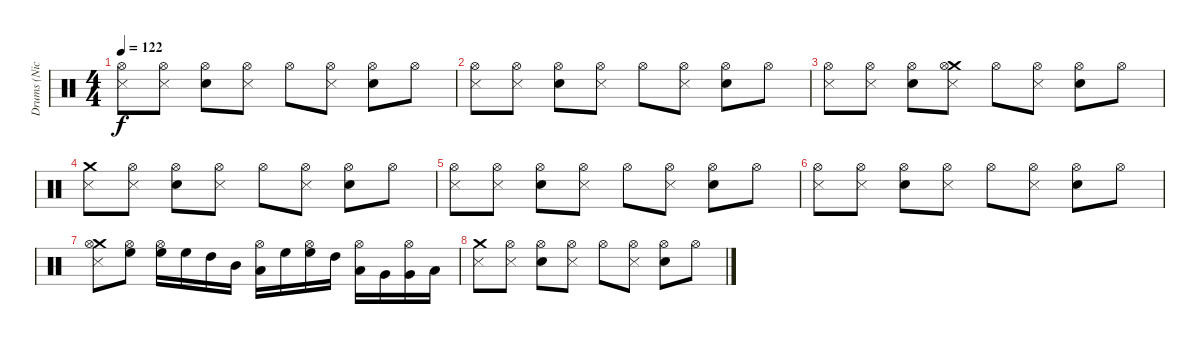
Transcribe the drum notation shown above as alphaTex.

\track ("Drums (Nick Menza)" "Drums (Nic") {instrument percussion}
\staff {score}
\articulation defaults
\ts (4 4)
\tempo 122
\clef neutral
\ks c
("Hi-Hat (open)" "Metronome (hit)").8{dy f volume 14} ("Hi-Hat (open)" "Metronome (hit)").8{volume 14} ("Hi-Hat (open)" "Electric Snare (hit)").8{volume 14} ("Hi-Hat (open)" "Metronome (hit)").8{volume 14} "Hi-Hat (open)".8{volume 13} ("Metronome (hit)" "Hi-Hat (open)").8{volume 13} ("Electric Snare (hit)" "Hi-Hat (open)").8{volume 13} "Hi-Hat (open)".8{volume 13} |
("Hi-Hat (open)" "Metronome (hit)").8{volume 12} ("Hi-Hat (open)" "Metronome (hit)").8{volume 12} ("Hi-Hat (open)" "Electric Snare (hit)").8{volume 12} ("Hi-Hat (open)" "Metronome (hit)").8{volume 12} "Hi-Hat (open)".8{volume 12} ("Metronome (hit)" "Hi-Hat (open)").8{volume 11} ("Electric Snare (hit)" "Hi-Hat (open)").8{volume 11} "Hi-Hat (open)".8{volume 11} |
("Hi-Hat (open)" "Metronome (hit)").8{volume 11} ("Hi-Hat (open)" "Metronome (hit)").8{volume 10} ("Hi-Hat (open)" "Electric Snare (hit)").8{volume 10} ("Crash medium (hit)" "Hi-Hat (open)" "Metronome (hit)").8{volume 10} "Hi-Hat (open)".8{volume 10} ("Metronome (hit)" "Hi-Hat (open)").8{volume 10} ("Electric Snare (hit)" "Hi-Hat (open)").8{volume 9} "Hi-Hat (open)".8{volume 9} |
("Crash medium (hit)" "Metronome (hit)").8{volume 9} ("Hi-Hat (open)" "Metronome (hit)").8{volume 9} ("Hi-Hat (open)" "Electric Snare (hit)").8{volume 8} ("Hi-Hat (open)" "Metronome (hit)").8{volume 8} "Hi-Hat (open)".8{volume 8} ("Metronome (hit)" "Hi-Hat (open)").8{volume 8} ("Electric Snare (hit)" "Hi-Hat (open)").8{volume 8} "Hi-Hat (open)".8{volume 7} |
("Hi-Hat (open)" "Metronome (hit)").8{volume 7} ("Hi-Hat (open)" "Metronome (hit)").8{volume 7} ("Hi-Hat (open)" "Electric Snare (hit)").8{volume 7} ("Hi-Hat (open)" "Metronome (hit)").8{volume 6} "Hi-Hat (open)".8{volume 6} ("Metronome (hit)" "Hi-Hat (open)").8{volume 6} ("Electric Snare (hit)" "Hi-Hat (open)").8{volume 6} "Hi-Hat (open)".8{volume 6} |
("Hi-Hat (open)" "Metronome (hit)").8{volume 5} ("Hi-Hat (open)" "Metronome (hit)").8{volume 5} ("Hi-Hat (open)" "Electric Snare (hit)").8{volume 5} ("Hi-Hat (open)" "Metronome (hit)").8{volume 5} "Hi-Hat (open)".8{volume 4} ("Metronome (hit)" "Hi-Hat (open)").8{volume 4} ("Electric Snare (hit)" "Hi-Hat (open)").8{volume 4} "Hi-Hat (open)".8{volume 4} |
("Crash medium (hit)" "Hi-Hat (open)" "Metronome (hit)").8{volume 4} ("High Floor Tom (hit)" "Hi-Hat (open)").8{volume 3} ("High Floor Tom (hit)" "Hi-Hat (open)").16{volume 3} "High Floor Tom (hit)".16{volume 3} "High Tom (hit)".16 "Mid Tom (hit)".16{volume 3} ("Low Tom (hit)" "Hi-Hat (open)").16{volume 3} "High Floor Tom (hit)".16{volume 3} ("High Floor Tom (hit)" "Hi-Hat (open)").16{volume 2} "High Tom (hit)".16{volume 2} ("Low Tom (hit)" "Hi-Hat (open)").16{volume 2} "Very Low Tom (hit)".16{volume 2} ("Very Low Tom (hit)" "Hi-Hat (open)").16 "Low Floor Tom (hit)".16{volume 2} |
("Crash medium (hit)" "Metronome (hit)").8{volume 2} ("Hi-Hat (open)" "Metronome (hit)").8{volume 2} ("Hi-Hat (open)" "Electric Snare (hit)").8{volume 1} ("Hi-Hat (open)" "Metronome (hit)").8{volume 1} "Hi-Hat (open)".8{volume 1} ("Metronome (hit)" "Hi-Hat (open)").8{volume 1} ("Electric Snare (hit)" "Hi-Hat (open)").8{volume 0} "Hi-Hat (open)".8{volume 0}
